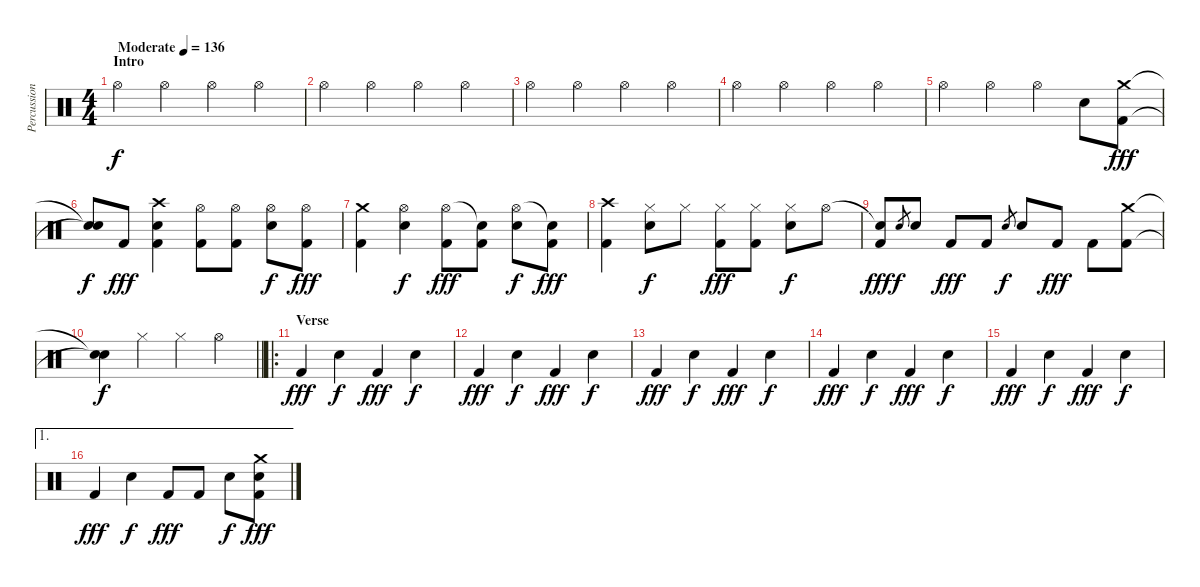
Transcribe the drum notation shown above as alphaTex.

\track ("Percussion" "Percussion") {instrument percussion}
\staff {score}
\articulation defaults
\ts (4 4)
\section ("" "Intro")
\tempo (136 "Moderate")
\clef neutral
\ks c "Hi-Hat (open)".4{dy f} "Hi-Hat (open)".4 "Hi-Hat (open)".4 "Hi-Hat (open)".4
|
"Hi-Hat (open)".4 "Hi-Hat (open)".4 "Hi-Hat (open)".4 "Hi-Hat (open)".4 |
"Hi-Hat (open)".4 "Hi-Hat (open)".4 "Hi-Hat (open)".4 "Hi-Hat (open)".4 |
"Hi-Hat (open)".4 "Hi-Hat (open)".4 "Hi-Hat (open)".4 "Hi-Hat (open)".4 |
"Hi-Hat (open)".4 "Hi-Hat (open)".4 "Hi-Hat (open)".4 "Electric Snare (hit)".8 ("Crash medium (hit)" "Kick (hit) 2").8{dy fff} |
("Snare (hit)"{t} "Snare (hit)"{t}).8{dy f} "Kick (hit) 2".8{dy fff} ("Crash high (hit)" "Electric Snare (hit)" "Kick (hit) 2").4 ("Hi-Hat (open)" "Kick (hit) 2").8 ("Hi-Hat (open)" "Kick (hit) 2").8 ("Hi-Hat (open)" "Electric Snare (hit)").8{dy f} ("Hi-Hat (open)" "Kick (hit) 2").8{dy fff} |
("Crash medium (hit)" "Kick (hit) 2").4 ("Hi-Hat (open)" "Electric Snare (hit)").4{dy f} ("Hi-Hat (open)" "Kick (hit) 2").8{dy fff} ("Snare (hit)"{t} "Kick (hit) 2").8 ("Hi-Hat (open)" "Electric Snare (hit)").8{dy f} ("Snare (hit)"{t} "Kick (hit) 2").8{dy fff} |
("Crash high (hit)" "Kick (hit) 2").4 ("Hi-Hat (closed)" "Electric Snare (hit)").8{dy f} "Hi-Hat (closed)".8 ("Hi-Hat (closed)" "Kick (hit) 2").8{dy fff} ("Hi-Hat (closed)" "Kick (hit) 2").8 ("Hi-Hat (closed)" "Electric Snare (hit)").8{dy f} "Hi-Hat (open)".8 |
("Snare (hit)"{t} "Kick (hit) 2").8{dy fff} "Electric Snare (hit)".8{gr dy f} "Electric Snare (hit)".8 "Kick (hit) 2".8{dy fff} "Kick (hit) 2".8 "Electric Snare (hit)".8{gr dy f} "Electric Snare (hit)".8 "Kick (hit) 2".8{dy fff} "Kick (hit) 2".8 ("Crash medium (hit)" "Kick (hit) 2").8 |
\barLineRight lightlight
("Snare (hit)"{t} "Snare (hit)"{t}).4{dy f} "Hi-Hat (closed)".4 "Hi-Hat (closed)".4 "Hi-Hat (open)".4 |
\ro
\section ("" "Verse")
"Kick (hit) 2".4{dy fff} "Electric Snare (hit)".4{dy f} "Kick (hit) 2".4{dy fff} "Electric Snare (hit)".4{dy f} |
"Kick (hit) 2".4{dy fff} "Electric Snare (hit)".4{dy f} "Kick (hit) 2".4{dy fff} "Electric Snare (hit)".4{dy f} |
"Kick (hit) 2".4{dy fff} "Electric Snare (hit)".4{dy f} "Kick (hit) 2".4{dy fff} "Electric Snare (hit)".4{dy f} |
"Kick (hit) 2".4{dy fff} "Electric Snare (hit)".4{dy f} "Kick (hit) 2".4{dy fff} "Electric Snare (hit)".4{dy f} |
"Kick (hit) 2".4{dy fff} "Electric Snare (hit)".4{dy f} "Kick (hit) 2".4{dy fff} "Electric Snare (hit)".4{dy f} |
\ae 1 "Kick (hit) 2".4{dy fff} "Electric Snare (hit)".4{dy f} "Kick (hit) 2".8{dy fff} "Kick (hit) 2".8 "Electric Snare (hit)".8{dy f}
("Crash medium (hit)" "Snare (hit)" "Kick (hit) 2").8{dy fff}
